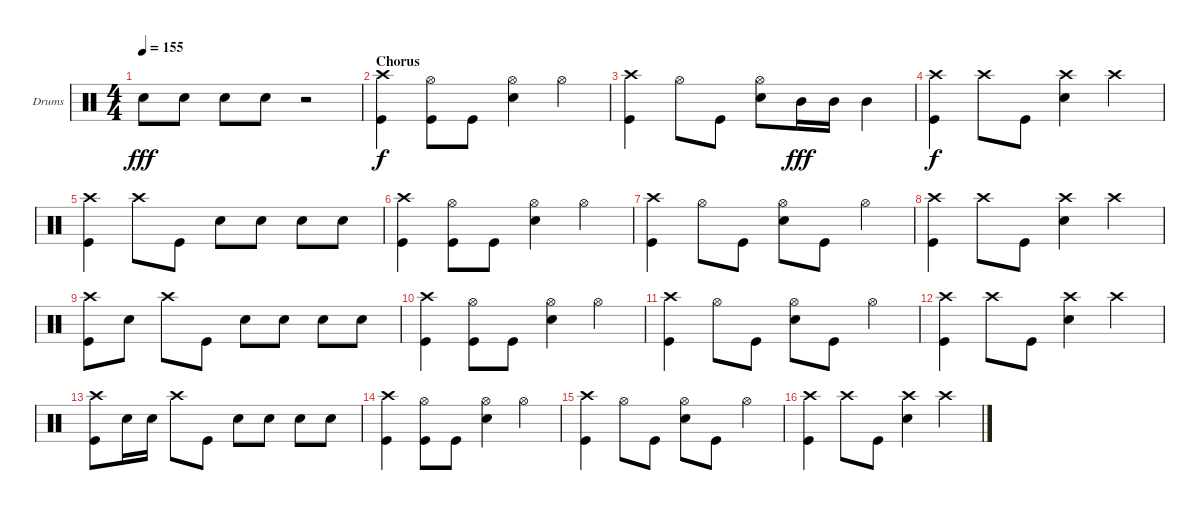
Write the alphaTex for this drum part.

\defaultSystemsLayout 4
\bracketExtendMode groupsimilarinstruments
\firstSystemTrackNameOrientation horizontal
\otherSystemsTrackNameOrientation horizontal
\track ("Ben Tatcher" "Drums") {instrument percussion}
\staff {score}
\articulation defaults
\ts (4 4)
\tempo 155
\clef neutral
\ks c "Snare (hit) 2".8{dy fff} "Snare (hit) 2".8 "Snare (hit) 2".8 "Snare (hit) 2".8
r.2 |
\section ("" "Chorus")
("Kick (hit)" "Crash high (hit)").4{dy f} ("Kick (hit)" "Hi-Hat (open)").8 "Kick (hit)".8 ("Hi-Hat (open)" "Snare (hit) 2").4 "Hi-Hat (open)".4 |
("Crash high (hit)" "Kick (hit)").4 "Hi-Hat (open)".8 "Kick (hit)".8 ("Snare (hit) 2" "Hi-Hat (open)").8 "Mid Tom (hit)".16{dy fff} "Mid Tom (hit)".16 "Mid Tom (hit)".4 |
("Kick (hit)" "Crash high (hit)").4{dy f} "Crash high (hit)".8 "Kick (hit)".8 ("Snare (hit) 2" "Crash high (hit)").4 "Crash high (hit)".4 |
("Kick (hit)" "Crash high (hit)").4 "Crash high (hit)".8 "Kick (hit)".8 "Snare (hit) 2".8 "Snare (hit) 2".8 "Snare (hit) 2".8 "Snare (hit) 2".8 |
("Kick (hit)" "Crash high (hit)").4 ("Kick (hit)" "Hi-Hat (open)").8 "Kick (hit)".8 ("Hi-Hat (open)" "Snare (hit) 2").4 "Hi-Hat (open)".4 |
("Crash high (hit)" "Kick (hit)").4 "Hi-Hat (open)".8 "Kick (hit)".8 ("Snare (hit) 2" "Hi-Hat (open)").8 "Kick (hit)".8 "Hi-Hat (open)".4 |
("Kick (hit)" "Crash high (hit)").4 "Crash high (hit)".8 "Kick (hit)".8 ("Snare (hit) 2" "Crash high (hit)").4 "Crash high (hit)".4 |
("Kick (hit)" "Crash high (hit)").8 "Snare (hit) 2".8 "Crash high (hit)".8 "Kick (hit)".8 "Snare (hit) 2".8 "Snare (hit) 2".8 "Snare (hit) 2".8 "Snare (hit) 2".8 |
("Kick (hit)" "Crash high (hit)").4 ("Kick (hit)" "Hi-Hat (open)").8 "Kick (hit)".8 ("Hi-Hat (open)" "Snare (hit) 2").4 "Hi-Hat (open)".4 |
("Crash high (hit)" "Kick (hit)").4 "Hi-Hat (open)".8 "Kick (hit)".8 ("Snare (hit) 2" "Hi-Hat (open)").8 "Kick (hit)".8 "Hi-Hat (open)".4 |
("Kick (hit)" "Crash high (hit)").4 "Crash high (hit)".8 "Kick (hit)".8 ("Snare (hit) 2" "Crash high (hit)").4 "Crash high (hit)".4 |
("Kick (hit)" "Crash high (hit)").8 "Snare (hit) 2".16 "Snare (hit) 2".16 "Crash high (hit)".8 "Kick (hit)".8 "Snare (hit) 2".8 "Snare (hit) 2".8 "Snare (hit) 2".8 "Snare (hit) 2".8 |
("Kick (hit)" "Crash high (hit)").4 ("Kick (hit)" "Hi-Hat (open)").8 "Kick (hit)".8 ("Hi-Hat (open)" "Snare (hit) 2").4 "Hi-Hat (open)".4 |
("Crash high (hit)" "Kick (hit)").4 "Hi-Hat (open)".8 "Kick (hit)".8 ("Snare (hit) 2" "Hi-Hat (open)").8 "Kick (hit)".8 "Hi-Hat (open)".4 |
("Kick (hit)" "Crash high (hit)").4 "Crash high (hit)".8 "Kick (hit)".8 ("Snare (hit) 2" "Crash high (hit)").4 "Crash high (hit)".4
